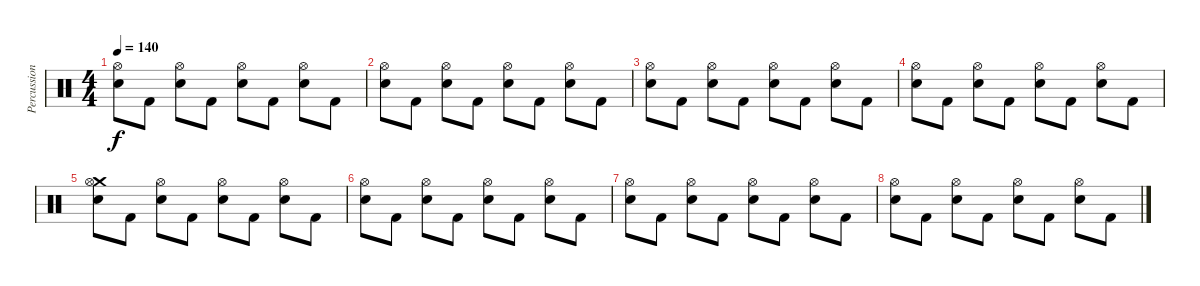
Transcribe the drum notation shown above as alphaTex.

\track ("Percussion" "Percussion") {instrument percussion}
\staff {score}
\articulation defaults
\ts (4 4)
\tempo 140
\clef neutral
\ks c
("Hi-Hat (open)" "Electric Snare (hit)").8{dy f} "Kick (hit) 2".8 ("Hi-Hat (open)" "Electric Snare (hit)").8 "Kick (hit) 2".8 ("Hi-Hat (open)" "Electric Snare (hit)").8 "Kick (hit) 2".8 ("Hi-Hat (open)" "Electric Snare (hit)").8 "Kick (hit) 2".8 |
("Hi-Hat (open)" "Electric Snare (hit)").8 "Kick (hit) 2".8 ("Hi-Hat (open)" "Electric Snare (hit)").8 "Kick (hit) 2".8 ("Hi-Hat (open)" "Electric Snare (hit)").8 "Kick (hit) 2".8 ("Hi-Hat (open)" "Electric Snare (hit)").8 "Kick (hit) 2".8 |
("Hi-Hat (open)" "Electric Snare (hit)").8 "Kick (hit) 2".8 ("Hi-Hat (open)" "Electric Snare (hit)").8 "Kick (hit) 2".8 ("Hi-Hat (open)" "Electric Snare (hit)").8 "Kick (hit) 2".8 ("Hi-Hat (open)" "Electric Snare (hit)").8 "Kick (hit) 2".8 |
("Hi-Hat (open)" "Electric Snare (hit)").8 "Kick (hit) 2".8 ("Hi-Hat (open)" "Electric Snare (hit)").8 "Kick (hit) 2".8 ("Hi-Hat (open)" "Electric Snare (hit)").8 "Kick (hit) 2".8 ("Hi-Hat (open)" "Electric Snare (hit)").8 "Kick (hit) 2".8 |
("Crash medium (hit)" "Hi-Hat (open)" "Electric Snare (hit)").8 "Kick (hit) 2".8 ("Hi-Hat (open)" "Electric Snare (hit)").8 "Kick (hit) 2".8 ("Hi-Hat (open)" "Electric Snare (hit)").8 "Kick (hit) 2".8 ("Hi-Hat (open)" "Electric Snare (hit)").8 "Kick (hit) 2".8 |
("Hi-Hat (open)" "Electric Snare (hit)").8 "Kick (hit) 2".8 ("Hi-Hat (open)" "Electric Snare (hit)").8 "Kick (hit) 2".8 ("Hi-Hat (open)" "Electric Snare (hit)").8 "Kick (hit) 2".8 ("Hi-Hat (open)" "Electric Snare (hit)").8 "Kick (hit) 2".8 |
("Hi-Hat (open)" "Electric Snare (hit)").8 "Kick (hit) 2".8 ("Hi-Hat (open)" "Electric Snare (hit)").8 "Kick (hit) 2".8 ("Hi-Hat (open)" "Electric Snare (hit)").8 "Kick (hit) 2".8 ("Hi-Hat (open)" "Electric Snare (hit)").8 "Kick (hit) 2".8 |
("Hi-Hat (open)" "Electric Snare (hit)").8 "Kick (hit) 2".8 ("Hi-Hat (open)" "Electric Snare (hit)").8 "Kick (hit) 2".8 ("Hi-Hat (open)" "Electric Snare (hit)").8 "Kick (hit) 2".8 ("Hi-Hat (open)" "Electric Snare (hit)").8 "Kick (hit) 2".8
